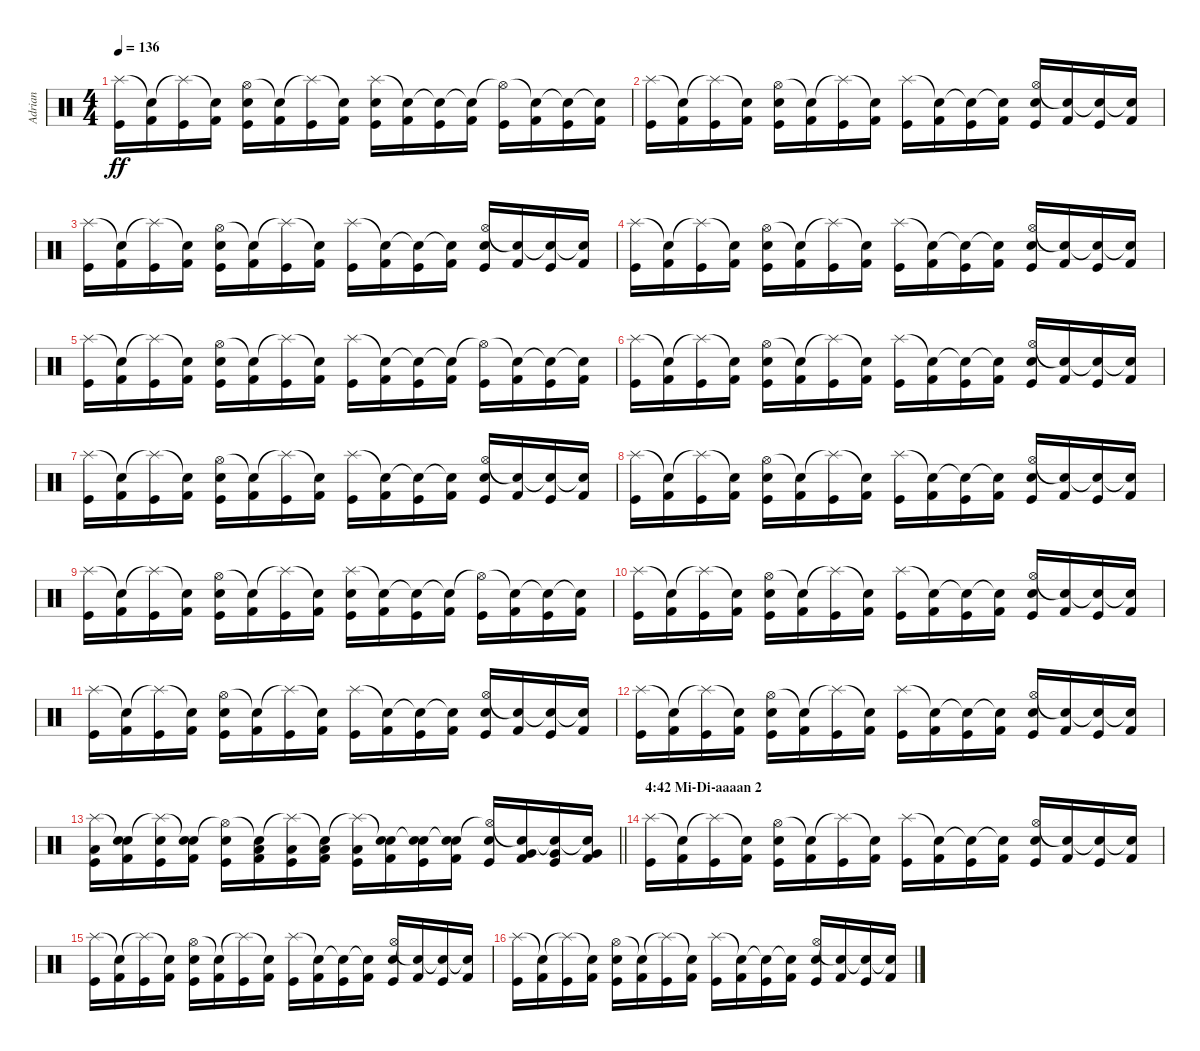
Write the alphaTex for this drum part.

\track ("Adrian" "Adrian") {instrument percussion}
\staff {score}
\articulation defaults
\ts (4 4)
\tempo 136
\clef neutral
\ks c
("Splash (hit)" "Kick (hit)").16{dy ff} ("Snare (hit)"{t} "Kick (hit) 2").16 ("Splash (hit)"{t} "Kick (hit)").16 ("Snare (hit)"{t} "Kick (hit) 2").16 ("Hi-Hat (open)" "Electric Snare (hit)" "Kick (hit)").16 ("Snare (hit)"{t} "Kick (hit) 2").16 ("Splash (hit)"{t} "Kick (hit)").16 ("Snare (hit)"{t} "Kick (hit) 2").16 ("Splash (hit)" "Electric Snare (hit)" "Kick (hit)").16 ("Snare (hit)"{t} "Kick (hit) 2").16 ("Snare (hit)"{t} "Kick (hit)").16 ("Snare (hit)"{t} "Kick (hit) 2").16 ("Hi-Hat (open)"{t} "Kick (hit)").16 ("Snare (hit)"{t} "Kick (hit) 2").16 ("Snare (hit)"{t} "Kick (hit)").16 ("Snare (hit)"{t} "Kick (hit) 2").16 |
("Splash (hit)" "Kick (hit)").16 ("Snare (hit)"{t} "Kick (hit) 2").16 ("Splash (hit)"{t} "Kick (hit)").16 ("Snare (hit)"{t} "Kick (hit) 2").16 ("Hi-Hat (open)" "Electric Snare (hit)" "Kick (hit)").16 ("Snare (hit)"{t} "Kick (hit) 2").16 ("Splash (hit)"{t} "Kick (hit)").16 ("Snare (hit)"{t} "Kick (hit) 2").16 ("Splash (hit)" "Kick (hit)").16 ("Snare (hit)"{t} "Kick (hit) 2").16 ("Snare (hit)"{t} "Kick (hit)").16 ("Snare (hit)"{t} "Kick (hit) 2").16 ("Hi-Hat (open)" "Electric Snare (hit)" "Kick (hit)").16 ("Snare (hit)"{t} "Kick (hit) 2").16 ("Snare (hit)"{t} "Kick (hit)").16 ("Snare (hit)"{t} "Kick (hit) 2").16 |
("Splash (hit)" "Kick (hit)").16 ("Snare (hit)"{t} "Kick (hit) 2").16 ("Splash (hit)"{t} "Kick (hit)").16 ("Snare (hit)"{t} "Kick (hit) 2").16 ("Hi-Hat (open)" "Electric Snare (hit)" "Kick (hit)").16 ("Snare (hit)"{t} "Kick (hit) 2").16 ("Splash (hit)"{t} "Kick (hit)").16 ("Snare (hit)"{t} "Kick (hit) 2").16 ("Splash (hit)" "Kick (hit)").16 ("Snare (hit)"{t} "Kick (hit) 2").16 ("Snare (hit)"{t} "Kick (hit)").16 ("Snare (hit)"{t} "Kick (hit) 2").16 ("Hi-Hat (open)" "Electric Snare (hit)" "Kick (hit)").16 ("Snare (hit)"{t} "Kick (hit) 2").16 ("Snare (hit)"{t} "Kick (hit)").16 ("Snare (hit)"{t} "Kick (hit) 2").16 |
("Splash (hit)" "Kick (hit)").16 ("Snare (hit)"{t} "Kick (hit) 2").16 ("Splash (hit)"{t} "Kick (hit)").16 ("Snare (hit)"{t} "Kick (hit) 2").16 ("Hi-Hat (open)" "Electric Snare (hit)" "Kick (hit)").16 ("Snare (hit)"{t} "Kick (hit) 2").16 ("Splash (hit)"{t} "Kick (hit)").16 ("Snare (hit)"{t} "Kick (hit) 2").16 ("Splash (hit)" "Kick (hit)").16 ("Snare (hit)"{t} "Kick (hit) 2").16 ("Snare (hit)"{t} "Kick (hit)").16 ("Snare (hit)"{t} "Kick (hit) 2").16 ("Hi-Hat (open)" "Electric Snare (hit)" "Kick (hit)").16 ("Snare (hit)"{t} "Kick (hit) 2").16 ("Snare (hit)"{t} "Kick (hit)").16 ("Snare (hit)"{t} "Kick (hit) 2").16 |
("Splash (hit)" "Kick (hit)").16 ("Snare (hit)"{t} "Kick (hit) 2").16 ("Splash (hit)"{t} "Kick (hit)").16 ("Snare (hit)"{t} "Kick (hit) 2").16 ("Hi-Hat (open)" "Electric Snare (hit)" "Kick (hit)").16 ("Snare (hit)"{t} "Kick (hit) 2").16 ("Splash (hit)"{t} "Kick (hit)").16 ("Snare (hit)"{t} "Kick (hit) 2").16 ("Splash (hit)" "Kick (hit)").16 ("Snare (hit)"{t} "Kick (hit) 2").16 ("Snare (hit)"{t} "Kick (hit)").16 ("Snare (hit)"{t} "Kick (hit) 2").16 ("Hi-Hat (open)"{t} "Kick (hit)").16 ("Snare (hit)"{t} "Kick (hit) 2").16 ("Snare (hit)"{t} "Kick (hit)").16 ("Snare (hit)"{t} "Kick (hit) 2").16 |
("Splash (hit)" "Kick (hit)").16 ("Snare (hit)"{t} "Kick (hit) 2").16 ("Splash (hit)"{t} "Kick (hit)").16 ("Snare (hit)"{t} "Kick (hit) 2").16 ("Hi-Hat (open)" "Electric Snare (hit)" "Kick (hit)").16 ("Snare (hit)"{t} "Kick (hit) 2").16 ("Splash (hit)"{t} "Kick (hit)").16 ("Snare (hit)"{t} "Kick (hit) 2").16 ("Splash (hit)" "Kick (hit)").16 ("Snare (hit)"{t} "Kick (hit) 2").16 ("Snare (hit)"{t} "Kick (hit)").16 ("Snare (hit)"{t} "Kick (hit) 2").16 ("Hi-Hat (open)" "Electric Snare (hit)" "Kick (hit)").16 ("Snare (hit)"{t} "Kick (hit) 2").16 ("Snare (hit)"{t} "Kick (hit)").16 ("Snare (hit)"{t} "Kick (hit) 2").16 |
("Splash (hit)" "Kick (hit)").16 ("Snare (hit)"{t} "Kick (hit) 2").16 ("Splash (hit)"{t} "Kick (hit)").16 ("Snare (hit)"{t} "Kick (hit) 2").16 ("Hi-Hat (open)" "Electric Snare (hit)" "Kick (hit)").16 ("Snare (hit)"{t} "Kick (hit) 2").16 ("Splash (hit)"{t} "Kick (hit)").16 ("Snare (hit)"{t} "Kick (hit) 2").16 ("Splash (hit)" "Kick (hit)").16 ("Snare (hit)"{t} "Kick (hit) 2").16 ("Snare (hit)"{t} "Kick (hit)").16 ("Snare (hit)"{t} "Kick (hit) 2").16 ("Hi-Hat (open)" "Electric Snare (hit)" "Kick (hit)").16 ("Snare (hit)"{t} "Kick (hit) 2").16 ("Snare (hit)"{t} "Kick (hit)").16 ("Snare (hit)"{t} "Kick (hit) 2").16 |
("Splash (hit)" "Kick (hit)").16 ("Snare (hit)"{t} "Kick (hit) 2").16 ("Splash (hit)"{t} "Kick (hit)").16 ("Snare (hit)"{t} "Kick (hit) 2").16 ("Hi-Hat (open)" "Electric Snare (hit)" "Kick (hit)").16 ("Snare (hit)"{t} "Kick (hit) 2").16 ("Splash (hit)"{t} "Kick (hit)").16 ("Snare (hit)"{t} "Kick (hit) 2").16 ("Splash (hit)" "Kick (hit)").16 ("Snare (hit)"{t} "Kick (hit) 2").16 ("Snare (hit)"{t} "Kick (hit)").16 ("Snare (hit)"{t} "Kick (hit) 2").16 ("Hi-Hat (open)" "Electric Snare (hit)" "Kick (hit)").16 ("Snare (hit)"{t} "Kick (hit) 2").16 ("Snare (hit)"{t} "Kick (hit)").16 ("Snare (hit)"{t} "Kick (hit) 2").16 |
("Splash (hit)" "Kick (hit)").16 ("Snare (hit)"{t} "Kick (hit) 2").16 ("Splash (hit)"{t} "Kick (hit)").16 ("Snare (hit)"{t} "Kick (hit) 2").16 ("Hi-Hat (open)" "Electric Snare (hit)" "Kick (hit)").16 ("Snare (hit)"{t} "Kick (hit) 2").16 ("Splash (hit)"{t} "Kick (hit)").16 ("Snare (hit)"{t} "Kick (hit) 2").16 ("Splash (hit)" "Electric Snare (hit)" "Kick (hit)").16 ("Snare (hit)"{t} "Kick (hit) 2").16 ("Snare (hit)"{t} "Kick (hit)").16 ("Snare (hit)"{t} "Kick (hit) 2").16 ("Hi-Hat (open)"{t} "Kick (hit)").16 ("Snare (hit)"{t} "Kick (hit) 2").16 ("Snare (hit)"{t} "Kick (hit)").16 ("Snare (hit)"{t} "Kick (hit) 2").16 |
("Splash (hit)" "Kick (hit)").16 ("Snare (hit)"{t} "Kick (hit) 2").16 ("Splash (hit)"{t} "Kick (hit)").16 ("Snare (hit)"{t} "Kick (hit) 2").16 ("Hi-Hat (open)" "Electric Snare (hit)" "Kick (hit)").16 ("Snare (hit)"{t} "Kick (hit) 2").16 ("Splash (hit)"{t} "Kick (hit)").16 ("Snare (hit)"{t} "Kick (hit) 2").16 ("Splash (hit)" "Kick (hit)").16 ("Snare (hit)"{t} "Kick (hit) 2").16 ("Snare (hit)"{t} "Kick (hit)").16 ("Snare (hit)"{t} "Kick (hit) 2").16 ("Hi-Hat (open)" "Electric Snare (hit)" "Kick (hit)").16 ("Snare (hit)"{t} "Kick (hit) 2").16 ("Snare (hit)"{t} "Kick (hit)").16 ("Snare (hit)"{t} "Kick (hit) 2").16 |
("Splash (hit)" "Kick (hit)").16 ("Snare (hit)"{t} "Kick (hit) 2").16 ("Splash (hit)"{t} "Kick (hit)").16 ("Snare (hit)"{t} "Kick (hit) 2").16 ("Hi-Hat (open)" "Electric Snare (hit)" "Kick (hit)").16 ("Snare (hit)"{t} "Kick (hit) 2").16 ("Splash (hit)"{t} "Kick (hit)").16 ("Snare (hit)"{t} "Kick (hit) 2").16 ("Splash (hit)" "Kick (hit)").16 ("Snare (hit)"{t} "Kick (hit) 2").16 ("Snare (hit)"{t} "Kick (hit)").16 ("Snare (hit)"{t} "Kick (hit) 2").16 ("Hi-Hat (open)" "Electric Snare (hit)" "Kick (hit)").16 ("Snare (hit)"{t} "Kick (hit) 2").16 ("Snare (hit)"{t} "Kick (hit)").16 ("Snare (hit)"{t} "Kick (hit) 2").16 |
("Splash (hit)" "Kick (hit)").16 ("Snare (hit)"{t} "Kick (hit) 2").16 ("Splash (hit)"{t} "Kick (hit)").16 ("Snare (hit)"{t} "Kick (hit) 2").16 ("Hi-Hat (open)" "Electric Snare (hit)" "Kick (hit)").16 ("Snare (hit)"{t} "Kick (hit) 2").16 ("Splash (hit)"{t} "Kick (hit)").16 ("Snare (hit)"{t} "Kick (hit) 2").16 ("Splash (hit)" "Kick (hit)").16 ("Snare (hit)"{t} "Kick (hit) 2").16 ("Snare (hit)"{t} "Kick (hit)").16 ("Snare (hit)"{t} "Kick (hit) 2").16 ("Hi-Hat (open)" "Electric Snare (hit)" "Kick (hit)").16 ("Snare (hit)"{t} "Kick (hit) 2").16 ("Snare (hit)"{t} "Kick (hit)").16 ("Snare (hit)"{t} "Kick (hit) 2").16 |
\barLineRight lightlight
("Splash (hit)" "Low Floor Tom (hit)" "Kick (hit)").16 ("Snare (hit)"{t} "Electric Snare (hit)" "Kick (hit) 2").16 ("Splash (hit)"{t} "Electric Snare (hit)" "Kick (hit)").16 ("Snare (hit)"{t} "Electric Snare (hit)" "Kick (hit) 2").16 ("Hi-Hat (open)"{t} "Electric Snare (hit)" "Kick (hit)").16 ("Snare (hit)"{t} "Low Tom (hit)" "Kick (hit) 2").16 ("Splash (hit)"{t} "Low Tom (hit)" "Kick (hit)").16 ("Snare (hit)"{t} "Low Tom (hit)" "Kick (hit) 2").16 ("Splash (hit)"{t} "Low Floor Tom (hit)" "Kick (hit)").16 ("Snare (hit)"{t} "Electric Snare (hit)" "Kick (hit) 2").16 ("Snare (hit)"{t} "Electric Snare (hit)" "Kick (hit)").16 ("Snare (hit)"{t} "Electric Snare (hit)" "Kick (hit) 2").16 ("Hi-Hat (open)"{t} "Electric Snare (hit)" "Kick (hit)").16 ("Snare (hit)"{t} "Very Low Tom (hit)" "Kick (hit) 2").16 ("Snare (hit)"{t} "Very Low Tom (hit)" "Kick (hit)").16 ("Snare (hit)"{t} "Very Low Tom (hit)" "Kick (hit) 2").16 |
\section ("" "4:42 Mi-Di-aaaan 2")
("Splash (hit)" "Kick (hit)").16 ("Snare (hit)"{t} "Kick (hit) 2").16 ("Splash (hit)"{t} "Kick (hit)").16 ("Snare (hit)"{t} "Kick (hit) 2").16 ("Hi-Hat (open)" "Electric Snare (hit)" "Kick (hit)").16 ("Snare (hit)"{t} "Kick (hit) 2").16 ("Splash (hit)"{t} "Kick (hit)").16 ("Snare (hit)"{t} "Kick (hit) 2").16 ("Splash (hit)" "Kick (hit)").16 ("Snare (hit)"{t} "Kick (hit) 2").16 ("Snare (hit)"{t} "Kick (hit)").16 ("Snare (hit)"{t} "Kick (hit) 2").16 ("Hi-Hat (open)" "Electric Snare (hit)" "Kick (hit)").16 ("Snare (hit)"{t} "Kick (hit) 2").16 ("Snare (hit)"{t} "Kick (hit)").16 ("Snare (hit)"{t} "Kick (hit) 2").16 |
("Splash (hit)" "Kick (hit)").16 ("Snare (hit)"{t} "Kick (hit) 2").16 ("Splash (hit)"{t} "Kick (hit)").16 ("Snare (hit)"{t} "Kick (hit) 2").16 ("Hi-Hat (open)" "Electric Snare (hit)" "Kick (hit)").16 ("Snare (hit)"{t} "Kick (hit) 2").16 ("Splash (hit)"{t} "Kick (hit)").16 ("Snare (hit)"{t} "Kick (hit) 2").16 ("Splash (hit)" "Kick (hit)").16 ("Snare (hit)"{t} "Kick (hit) 2").16 ("Snare (hit)"{t} "Kick (hit)").16 ("Snare (hit)"{t} "Kick (hit) 2").16 ("Hi-Hat (open)" "Electric Snare (hit)" "Kick (hit)").16 ("Snare (hit)"{t} "Kick (hit) 2").16 ("Snare (hit)"{t} "Kick (hit)").16 ("Snare (hit)"{t} "Kick (hit) 2").16 |
("Splash (hit)" "Kick (hit)").16 ("Snare (hit)"{t} "Kick (hit) 2").16 ("Splash (hit)"{t} "Kick (hit)").16 ("Snare (hit)"{t} "Kick (hit) 2").16 ("Hi-Hat (open)" "Electric Snare (hit)" "Kick (hit)").16 ("Snare (hit)"{t} "Kick (hit) 2").16 ("Splash (hit)"{t} "Kick (hit)").16 ("Snare (hit)"{t} "Kick (hit) 2").16 ("Splash (hit)" "Kick (hit)").16 ("Snare (hit)"{t} "Kick (hit) 2").16 ("Snare (hit)"{t} "Kick (hit)").16 ("Snare (hit)"{t} "Kick (hit) 2").16 ("Hi-Hat (open)" "Electric Snare (hit)" "Kick (hit)").16 ("Snare (hit)"{t} "Kick (hit) 2").16 ("Snare (hit)"{t} "Kick (hit)").16 ("Snare (hit)"{t} "Kick (hit) 2").16
